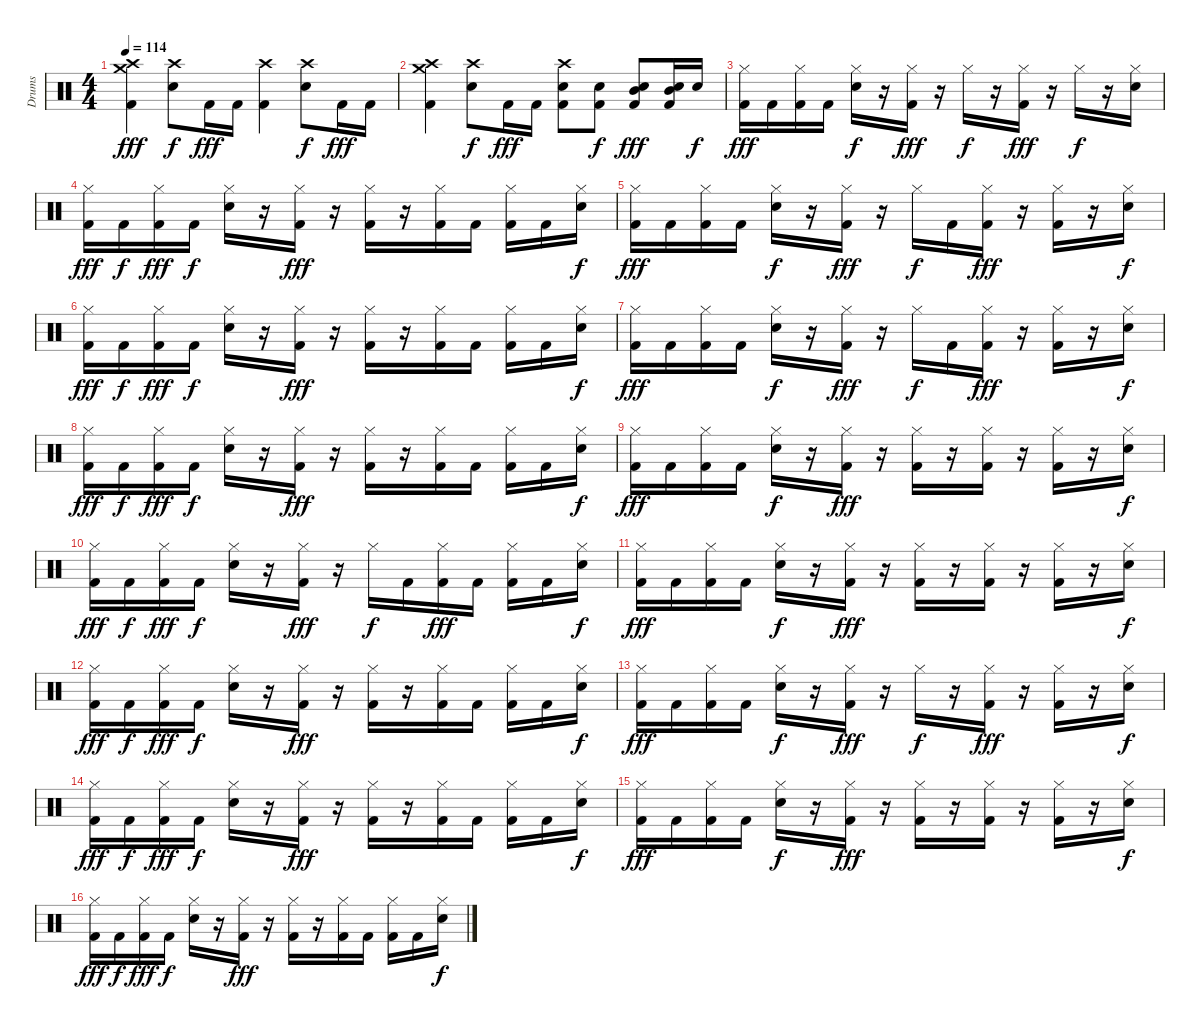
\track ("Drums" "Drums") {instrument percussion}
\staff {score}
\articulation defaults
\ts (4 4)
\tempo 114
\clef neutral
\ks c
("Crash high (hit)" "Crash medium (hit)" "Kick (hit) 2").4{dy fff} ("Crash high (hit)" "Snare (hit) 2").8{dy f} "Kick (hit) 2".16{dy fff} "Kick (hit) 2".16 ("Crash high (hit)" "Kick (hit) 2").4 ("Crash high (hit)" "Snare (hit) 2").8{dy f} "Kick (hit) 2".16{dy fff} "Kick (hit) 2".16 |
("Crash high (hit)" "Crash medium (hit)" "Kick (hit) 2").4 ("Crash high (hit)" "Snare (hit) 2").8{dy f} "Kick (hit) 2".16{dy fff} "Kick (hit) 2".16 ("Crash high (hit)" "Kick (hit) 2" "Snare (hit) 2").8 ("Kick (hit) 2" "Snare (hit) 2").8{dy f} ("Mid Tom (hit)" "Kick (hit) 2" "Snare (hit) 2").8{dy fff} ("Mid Tom (hit)" "Kick (hit) 2" "Snare (hit) 2").16 "Snare (hit) 2".16{dy f} |
("Hi-Hat (closed)" "Kick (hit) 2").16{dy fff} "Kick (hit) 2".16 ("Hi-Hat (closed)" "Kick (hit) 2").16 "Kick (hit) 2".16 ("Hi-Hat (closed)" "Snare (hit) 2").16{dy f} r.16 ("Hi-Hat (closed)" "Kick (hit) 2").16{dy fff} r.16 "Hi-Hat (closed)".16{dy f} r.16 ("Hi-Hat (closed)" "Kick (hit) 2").16{dy fff} r.16 "Hi-Hat (closed)".16{dy f} r.16 ("Hi-Hat (closed)" "Snare (hit) 2").16 |
("Hi-Hat (closed)" "Kick (hit) 2").16{dy fff} "Kick (hit) 2".16{dy f} ("Hi-Hat (closed)" "Kick (hit) 2").16{dy fff} "Kick (hit) 2".16{dy f} ("Hi-Hat (closed)" "Snare (hit) 2").16 r.16 ("Hi-Hat (closed)" "Kick (hit) 2").16{dy fff} r.16 ("Hi-Hat (closed)" "Kick (hit) 2").16 r.16 ("Hi-Hat (closed)" "Kick (hit) 2").16 "Kick (hit) 2".16 ("Hi-Hat (closed)" "Kick (hit) 2").16 "Kick (hit) 2".16 ("Hi-Hat (closed)" "Snare (hit) 2").16{dy f} |
("Hi-Hat (closed)" "Kick (hit) 2").16{dy fff} "Kick (hit) 2".16 ("Hi-Hat (closed)" "Kick (hit) 2").16 "Kick (hit) 2".16 ("Hi-Hat (closed)" "Snare (hit) 2").16{dy f} r.16 ("Hi-Hat (closed)" "Kick (hit) 2").16{dy fff} r.16 "Hi-Hat (closed)".16{dy f} "Kick (hit) 2".16 ("Hi-Hat (closed)" "Kick (hit) 2").16{dy fff} r.16 ("Hi-Hat (closed)" "Kick (hit) 2").16 r.16 ("Hi-Hat (closed)" "Snare (hit) 2").16{dy f} |
("Hi-Hat (closed)" "Kick (hit) 2").16{dy fff} "Kick (hit) 2".16{dy f} ("Hi-Hat (closed)" "Kick (hit) 2").16{dy fff} "Kick (hit) 2".16{dy f} ("Hi-Hat (closed)" "Snare (hit) 2").16 r.16 ("Hi-Hat (closed)" "Kick (hit) 2").16{dy fff} r.16 ("Hi-Hat (closed)" "Kick (hit) 2").16 r.16 ("Hi-Hat (closed)" "Kick (hit) 2").16 "Kick (hit) 2".16 ("Hi-Hat (closed)" "Kick (hit) 2").16 "Kick (hit) 2".16 ("Hi-Hat (closed)" "Snare (hit) 2").16{dy f} |
("Hi-Hat (closed)" "Kick (hit) 2").16{dy fff} "Kick (hit) 2".16 ("Hi-Hat (closed)" "Kick (hit) 2").16 "Kick (hit) 2".16 ("Hi-Hat (closed)" "Snare (hit) 2").16{dy f} r.16 ("Hi-Hat (closed)" "Kick (hit) 2").16{dy fff} r.16 "Hi-Hat (closed)".16{dy f} "Kick (hit) 2".16 ("Hi-Hat (closed)" "Kick (hit) 2").16{dy fff} r.16 ("Hi-Hat (closed)" "Kick (hit) 2").16 r.16 ("Hi-Hat (closed)" "Snare (hit) 2").16{dy f} |
("Hi-Hat (closed)" "Kick (hit) 2").16{dy fff} "Kick (hit) 2".16{dy f} ("Hi-Hat (closed)" "Kick (hit) 2").16{dy fff} "Kick (hit) 2".16{dy f} ("Hi-Hat (closed)" "Snare (hit) 2").16 r.16 ("Hi-Hat (closed)" "Kick (hit) 2").16{dy fff} r.16 ("Hi-Hat (closed)" "Kick (hit) 2").16 r.16 ("Hi-Hat (closed)" "Kick (hit) 2").16 "Kick (hit) 2".16 ("Hi-Hat (closed)" "Kick (hit) 2").16 "Kick (hit) 2".16 ("Hi-Hat (closed)" "Snare (hit) 2").16{dy f} |
("Hi-Hat (closed)" "Kick (hit) 2").16{dy fff} "Kick (hit) 2".16 ("Hi-Hat (closed)" "Kick (hit) 2").16 "Kick (hit) 2".16 ("Hi-Hat (closed)" "Snare (hit) 2").16{dy f} r.16 ("Hi-Hat (closed)" "Kick (hit) 2").16{dy fff} r.16 ("Hi-Hat (closed)" "Kick (hit) 2").16 r.16 ("Hi-Hat (closed)" "Kick (hit) 2").16 r.16 ("Hi-Hat (closed)" "Kick (hit) 2").16 r.16 ("Hi-Hat (closed)" "Snare (hit) 2").16{dy f} |
("Hi-Hat (closed)" "Kick (hit) 2").16{dy fff} "Kick (hit) 2".16{dy f} ("Hi-Hat (closed)" "Kick (hit) 2").16{dy fff} "Kick (hit) 2".16{dy f} ("Hi-Hat (closed)" "Snare (hit) 2").16 r.16 ("Hi-Hat (closed)" "Kick (hit) 2").16{dy fff} r.16 "Hi-Hat (closed)".16{dy f} "Kick (hit) 2".16 ("Hi-Hat (closed)" "Kick (hit) 2").16{dy fff} "Kick (hit) 2".16 ("Hi-Hat (closed)" "Kick (hit) 2").16 "Kick (hit) 2".16 ("Hi-Hat (closed)" "Snare (hit) 2").16{dy f} |
("Hi-Hat (closed)" "Kick (hit) 2").16{dy fff} "Kick (hit) 2".16 ("Hi-Hat (closed)" "Kick (hit) 2").16 "Kick (hit) 2".16 ("Hi-Hat (closed)" "Snare (hit) 2").16{dy f} r.16 ("Hi-Hat (closed)" "Kick (hit) 2").16{dy fff} r.16 ("Hi-Hat (closed)" "Kick (hit) 2").16 r.16 ("Hi-Hat (closed)" "Kick (hit) 2").16 r.16 ("Hi-Hat (closed)" "Kick (hit) 2").16 r.16 ("Hi-Hat (closed)" "Snare (hit) 2").16{dy f} |
("Hi-Hat (closed)" "Kick (hit) 2").16{dy fff} "Kick (hit) 2".16{dy f} ("Hi-Hat (closed)" "Kick (hit) 2").16{dy fff} "Kick (hit) 2".16{dy f} ("Hi-Hat (closed)" "Snare (hit) 2").16 r.16 ("Hi-Hat (closed)" "Kick (hit) 2").16{dy fff} r.16 ("Hi-Hat (closed)" "Kick (hit) 2").16 r.16 ("Hi-Hat (closed)" "Kick (hit) 2").16 "Kick (hit) 2".16 ("Hi-Hat (closed)" "Kick (hit) 2").16 "Kick (hit) 2".16 ("Hi-Hat (closed)" "Snare (hit) 2").16{dy f} |
("Hi-Hat (closed)" "Kick (hit) 2").16{dy fff} "Kick (hit) 2".16 ("Hi-Hat (closed)" "Kick (hit) 2").16 "Kick (hit) 2".16 ("Hi-Hat (closed)" "Snare (hit) 2").16{dy f} r.16 ("Hi-Hat (closed)" "Kick (hit) 2").16{dy fff} r.16 "Hi-Hat (closed)".16{dy f} r.16 ("Hi-Hat (closed)" "Kick (hit) 2").16{dy fff} r.16 ("Hi-Hat (closed)" "Kick (hit) 2").16 r.16 ("Hi-Hat (closed)" "Snare (hit) 2").16{dy f} |
("Hi-Hat (closed)" "Kick (hit) 2").16{dy fff} "Kick (hit) 2".16{dy f} ("Hi-Hat (closed)" "Kick (hit) 2").16{dy fff} "Kick (hit) 2".16{dy f} ("Hi-Hat (closed)" "Snare (hit) 2").16 r.16 ("Hi-Hat (closed)" "Kick (hit) 2").16{dy fff} r.16 ("Hi-Hat (closed)" "Kick (hit) 2").16 r.16 ("Hi-Hat (closed)" "Kick (hit) 2").16 "Kick (hit) 2".16 ("Hi-Hat (closed)" "Kick (hit) 2").16 "Kick (hit) 2".16 ("Hi-Hat (closed)" "Snare (hit) 2").16{dy f} |
("Hi-Hat (closed)" "Kick (hit) 2").16{dy fff} "Kick (hit) 2".16 ("Hi-Hat (closed)" "Kick (hit) 2").16 "Kick (hit) 2".16 ("Hi-Hat (closed)" "Snare (hit) 2").16{dy f} r.16 ("Hi-Hat (closed)" "Kick (hit) 2").16{dy fff} r.16 ("Hi-Hat (closed)" "Kick (hit) 2").16 r.16 ("Hi-Hat (closed)" "Kick (hit) 2").16 r.16 ("Hi-Hat (closed)" "Kick (hit) 2").16 r.16 ("Hi-Hat (closed)" "Snare (hit) 2").16{dy f} |
("Hi-Hat (closed)" "Kick (hit) 2").16{dy fff} "Kick (hit) 2".16{dy f} ("Hi-Hat (closed)" "Kick (hit) 2").16{dy fff} "Kick (hit) 2".16{dy f} ("Hi-Hat (closed)" "Snare (hit) 2").16 r.16 ("Hi-Hat (closed)" "Kick (hit) 2").16{dy fff} r.16 ("Hi-Hat (closed)" "Kick (hit) 2").16 r.16 ("Hi-Hat (closed)" "Kick (hit) 2").16 "Kick (hit) 2".16 ("Hi-Hat (closed)" "Kick (hit) 2").16 "Kick (hit) 2".16 ("Hi-Hat (closed)" "Snare (hit) 2").16{dy f}
